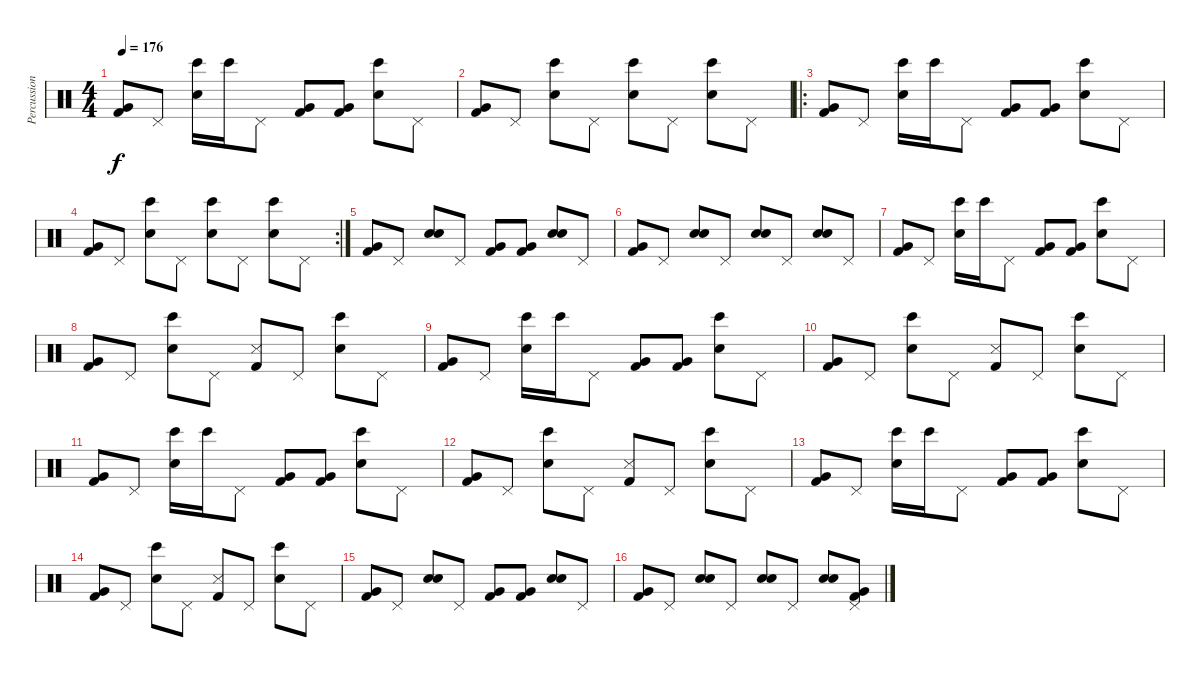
\track ("Percussions" "Percussion") {instrument percussion}
\staff {score}
\articulation defaults
\ts (4 4)
\tempo 176
\clef neutral
\ks c
("Kick (hit) 2" "Very Low Tom (hit)").8{dy f} "Pedal Hi-Hat (hit)".8 ("Snare (hit) 2" "Bongo High (hit)").16 "Bongo High (hit)".16 "Pedal Hi-Hat (hit)".8 ("Kick (hit) 2" "Very Low Tom (hit)").8 ("Kick (hit) 2" "Very Low Tom (hit)").8 ("Snare (hit) 2" "Bongo High (hit)").8 "Pedal Hi-Hat (hit)".8 |
("Kick (hit) 2" "Very Low Tom (hit)").8 "Pedal Hi-Hat (hit)".8 ("Snare (hit) 2" "Bongo High (hit)").8 "Pedal Hi-Hat (hit)".8 ("Snare (hit) 2" "Bongo High (hit)").8 "Pedal Hi-Hat (hit)".8 ("Snare (hit) 2" "Bongo High (hit)").8 "Pedal Hi-Hat (hit)".8 |
\ro
("Kick (hit) 2" "Very Low Tom (hit)").8 "Pedal Hi-Hat (hit)".8 ("Snare (hit) 2" "Bongo High (hit)").16 "Bongo High (hit)".16 "Pedal Hi-Hat (hit)".8 ("Kick (hit) 2" "Very Low Tom (hit)").8 ("Kick (hit) 2" "Very Low Tom (hit)").8 ("Snare (hit) 2" "Bongo High (hit)").8 "Pedal Hi-Hat (hit)".8 |
\rc 2
("Kick (hit) 2" "Very Low Tom (hit)").8 "Pedal Hi-Hat (hit)".8 ("Snare (hit) 2" "Bongo High (hit)").8 "Pedal Hi-Hat (hit)".8 ("Snare (hit) 2" "Bongo High (hit)").8 "Pedal Hi-Hat (hit)".8 ("Snare (hit) 2" "Bongo High (hit)").8 "Pedal Hi-Hat (hit)".8 |
("Kick (hit) 2" "Very Low Tom (hit)").8 "Pedal Hi-Hat (hit)".8 ("Snare (hit) 2" "Electric Snare (hit)").8 "Pedal Hi-Hat (hit)".8 ("Kick (hit) 2" "Very Low Tom (hit)").8 ("Kick (hit) 2" "Very Low Tom (hit)").8 ("Snare (hit) 2" "Electric Snare (hit)").8 "Pedal Hi-Hat (hit)".8 |
("Kick (hit) 2" "Very Low Tom (hit)").8 "Pedal Hi-Hat (hit)".8 ("Snare (hit) 2" "Electric Snare (hit)").8 "Pedal Hi-Hat (hit)".8 ("Snare (hit) 2" "Electric Snare (hit)").8 "Pedal Hi-Hat (hit)".8 ("Snare (hit) 2" "Electric Snare (hit)").8 "Pedal Hi-Hat (hit)".8 |
("Kick (hit) 2" "Very Low Tom (hit)").8 "Pedal Hi-Hat (hit)".8 ("Snare (hit) 2" "Bongo High (hit)").16 "Bongo High (hit)".16 "Pedal Hi-Hat (hit)".8 ("Kick (hit) 2" "Very Low Tom (hit)").8 ("Kick (hit) 2" "Very Low Tom (hit)").8 ("Snare (hit) 2" "Bongo High (hit)").8 "Pedal Hi-Hat (hit)".8 |
("Kick (hit) 2" "Very Low Tom (hit)").8 "Pedal Hi-Hat (hit)".8 ("Snare (hit) 2" "Bongo High (hit)").8 "Pedal Hi-Hat (hit)".8 ("Kick (hit) 2" "Snare (side stick) 3").8 "Pedal Hi-Hat (hit)".8 ("Snare (hit) 2" "Bongo High (hit)").8 "Pedal Hi-Hat (hit)".8 |
("Kick (hit) 2" "Very Low Tom (hit)").8 "Pedal Hi-Hat (hit)".8 ("Snare (hit) 2" "Bongo High (hit)").16 "Bongo High (hit)".16 "Pedal Hi-Hat (hit)".8 ("Kick (hit) 2" "Very Low Tom (hit)").8 ("Kick (hit) 2" "Very Low Tom (hit)").8 ("Snare (hit) 2" "Bongo High (hit)").8 "Pedal Hi-Hat (hit)".8 |
("Kick (hit) 2" "Very Low Tom (hit)").8 "Pedal Hi-Hat (hit)".8 ("Snare (hit) 2" "Bongo High (hit)").8 "Pedal Hi-Hat (hit)".8 ("Kick (hit) 2" "Snare (side stick) 3").8 "Pedal Hi-Hat (hit)".8 ("Snare (hit) 2" "Bongo High (hit)").8 "Pedal Hi-Hat (hit)".8 |
("Kick (hit) 2" "Very Low Tom (hit)").8 "Pedal Hi-Hat (hit)".8 ("Snare (hit) 2" "Bongo High (hit)").16 "Bongo High (hit)".16 "Pedal Hi-Hat (hit)".8 ("Kick (hit) 2" "Very Low Tom (hit)").8 ("Kick (hit) 2" "Very Low Tom (hit)").8 ("Snare (hit) 2" "Bongo High (hit)").8 "Pedal Hi-Hat (hit)".8 |
("Kick (hit) 2" "Very Low Tom (hit)").8 "Pedal Hi-Hat (hit)".8 ("Snare (hit) 2" "Bongo High (hit)").8 "Pedal Hi-Hat (hit)".8 ("Kick (hit) 2" "Snare (side stick) 3").8 "Pedal Hi-Hat (hit)".8 ("Snare (hit) 2" "Bongo High (hit)").8 "Pedal Hi-Hat (hit)".8 |
("Kick (hit) 2" "Very Low Tom (hit)").8 "Pedal Hi-Hat (hit)".8 ("Snare (hit) 2" "Bongo High (hit)").16 "Bongo High (hit)".16 "Pedal Hi-Hat (hit)".8 ("Kick (hit) 2" "Very Low Tom (hit)").8 ("Kick (hit) 2" "Very Low Tom (hit)").8 ("Snare (hit) 2" "Bongo High (hit)").8 "Pedal Hi-Hat (hit)".8 |
("Kick (hit) 2" "Very Low Tom (hit)").8 "Pedal Hi-Hat (hit)".8 ("Snare (hit) 2" "Bongo High (hit)").8 "Pedal Hi-Hat (hit)".8 ("Kick (hit) 2" "Snare (side stick) 3").8 "Pedal Hi-Hat (hit)".8 ("Snare (hit) 2" "Bongo High (hit)").8 "Pedal Hi-Hat (hit)".8 |
("Kick (hit) 2" "Very Low Tom (hit)").8 "Pedal Hi-Hat (hit)".8 ("Snare (hit) 2" "Electric Snare (hit)").8 "Pedal Hi-Hat (hit)".8 ("Kick (hit) 2" "Very Low Tom (hit)").8 ("Kick (hit) 2" "Very Low Tom (hit)").8 ("Snare (hit) 2" "Electric Snare (hit)").8 "Pedal Hi-Hat (hit)".8 |
("Kick (hit) 2" "Very Low Tom (hit)").8 "Pedal Hi-Hat (hit)".8 ("Snare (hit) 2" "Electric Snare (hit)").8 "Pedal Hi-Hat (hit)".8 ("Snare (hit) 2" "Electric Snare (hit)").8 "Pedal Hi-Hat (hit)".8 ("Snare (hit) 2" "Electric Snare (hit)").8 ("Pedal Hi-Hat (hit)" "Kick (hit) 2" "Very Low Tom (hit)").8
